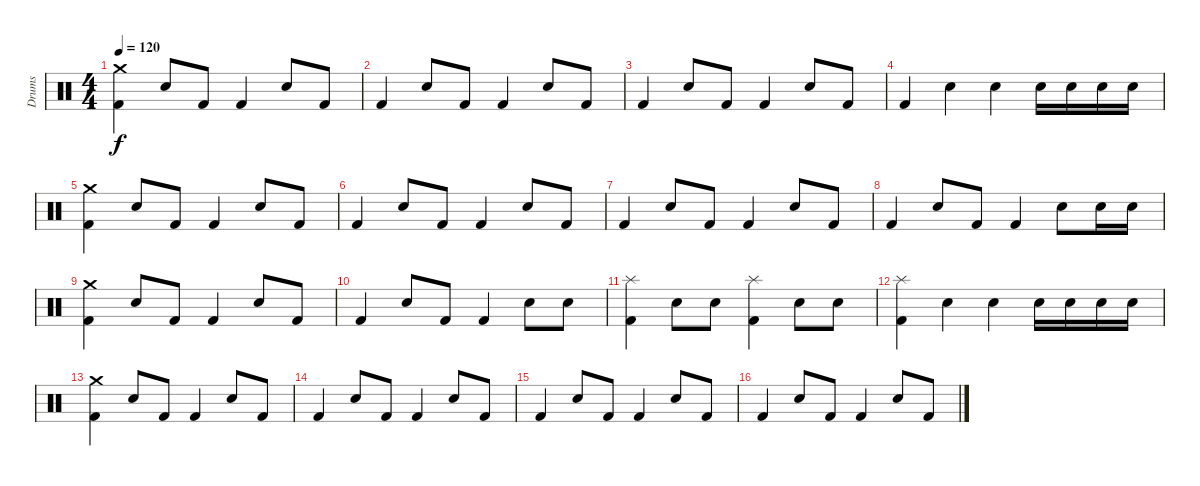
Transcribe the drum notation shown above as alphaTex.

\track ("Drums" "Drums") {instrument percussion}
\staff {score}
\articulation defaults
\ts (4 4)
\tempo 120
\clef neutral
\ks c
("Crash medium (hit)" "Kick (hit) 2").4{dy f} "Snare (hit) 2".8 "Kick (hit) 2".8 "Kick (hit) 2".4 "Snare (hit) 2".8 "Kick (hit) 2".8 |
"Kick (hit) 2".4 "Snare (hit) 2".8 "Kick (hit) 2".8 "Kick (hit) 2".4 "Snare (hit) 2".8 "Kick (hit) 2".8 |
"Kick (hit) 2".4 "Snare (hit) 2".8 "Kick (hit) 2".8 "Kick (hit) 2".4 "Snare (hit) 2".8 "Kick (hit) 2".8 |
"Kick (hit) 2".4 "Snare (hit) 2".4 "Snare (hit) 2".4 "Snare (hit) 2".16 "Snare (hit) 2".16 "Snare (hit) 2".16 "Snare (hit) 2".16 |
("Crash medium (hit)" "Kick (hit) 2").4 "Snare (hit) 2".8 "Kick (hit) 2".8 "Kick (hit) 2".4 "Snare (hit) 2".8 "Kick (hit) 2".8 |
"Kick (hit) 2".4 "Snare (hit) 2".8 "Kick (hit) 2".8 "Kick (hit) 2".4 "Snare (hit) 2".8 "Kick (hit) 2".8 |
"Kick (hit) 2".4 "Snare (hit) 2".8 "Kick (hit) 2".8 "Kick (hit) 2".4 "Snare (hit) 2".8 "Kick (hit) 2".8 |
"Kick (hit) 2".4 "Snare (hit) 2".8 "Kick (hit) 2".8 "Kick (hit) 2".4 "Snare (hit) 2".8 "Snare (hit) 2".16 "Snare (hit) 2".16 |
("Crash medium (hit)" "Kick (hit) 2").4 "Snare (hit) 2".8 "Kick (hit) 2".8 "Kick (hit) 2".4 "Snare (hit) 2".8 "Kick (hit) 2".8 |
"Kick (hit) 2".4 "Snare (hit) 2".8 "Kick (hit) 2".8 "Kick (hit) 2".4 "Snare (hit) 2".8 "Snare (hit) 2".8 |
("Splash (hit)" "Kick (hit) 2").4 "Snare (hit) 2".8 "Snare (hit) 2".8 ("Splash (hit)" "Kick (hit) 2").4 "Snare (hit) 2".8 "Snare (hit) 2".8 |
("Splash (hit)" "Kick (hit) 2").4 "Snare (hit) 2".4 "Snare (hit) 2".4 "Snare (hit) 2".16 "Snare (hit) 2".16 "Snare (hit) 2".16 "Snare (hit) 2".16 |
("Crash medium (hit)" "Kick (hit) 2").4 "Snare (hit) 2".8 "Kick (hit) 2".8 "Kick (hit) 2".4 "Snare (hit) 2".8 "Kick (hit) 2".8 |
"Kick (hit) 2".4 "Snare (hit) 2".8 "Kick (hit) 2".8 "Kick (hit) 2".4 "Snare (hit) 2".8 "Kick (hit) 2".8 |
"Kick (hit) 2".4 "Snare (hit) 2".8 "Kick (hit) 2".8 "Kick (hit) 2".4 "Snare (hit) 2".8 "Kick (hit) 2".8 |
"Kick (hit) 2".4 "Snare (hit) 2".8 "Kick (hit) 2".8 "Kick (hit) 2".4 "Snare (hit) 2".8 "Kick (hit) 2".8
